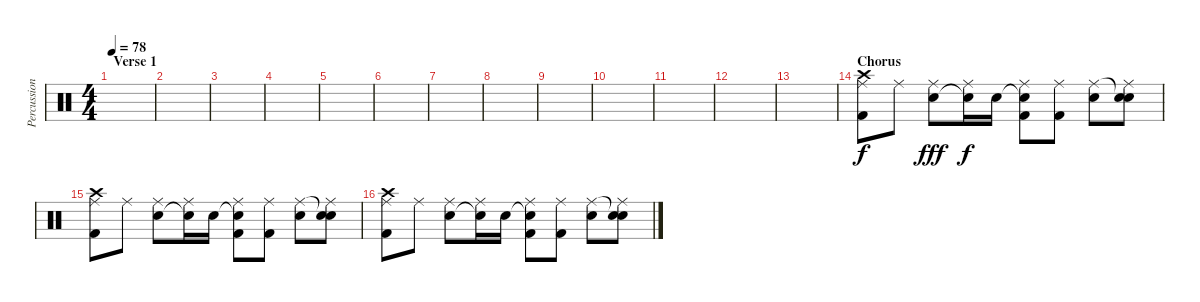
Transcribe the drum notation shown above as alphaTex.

\track ("Percussion" "Percussion") {instrument percussion}
\staff {score}
\articulation defaults
\ts (4 4)
\section ("" "Verse 1")
\tempo 78
\clef neutral
\ks c
|
|
|
|
|
|
|
|
|
|
|
|
|
\section ("" "Chorus")
("Crash high (hit)" "Ride (middle)" "Kick (hit) 2").8 "Ride (middle)".8 ("Ride (middle)" "Electric Snare (hit)").8{dy fff} ("Ride (middle)" "Snare (hit)"{t}).16{dy f} "Snare (hit) 2".16 ("Snare (hit)"{t} "Ride (middle)" "Kick (hit) 2").8 ("Ride (middle)" "Kick (hit) 2").8 ("Ride (middle)" "Electric Snare (hit)").8 ("Snare (hit)"{t} "Ride (middle)" "Electric Snare (hit)").8 |
("Crash high (hit)" "Ride (middle)" "Kick (hit) 2").8 "Ride (middle)".8 ("Ride (middle)" "Electric Snare (hit)").8 ("Ride (middle)" "Snare (hit)"{t}).16 "Snare (hit) 2".16 ("Snare (hit)"{t} "Ride (middle)" "Kick (hit) 2").8 ("Ride (middle)" "Kick (hit) 2").8 ("Ride (middle)" "Electric Snare (hit)").8 ("Snare (hit)"{t} "Ride (middle)" "Electric Snare (hit)").8 |
("Crash high (hit)" "Ride (middle)" "Kick (hit) 2").8 "Ride (middle)".8 ("Ride (middle)" "Electric Snare (hit)").8 ("Ride (middle)" "Snare (hit)"{t}).16 "Snare (hit) 2".16 ("Snare (hit)"{t} "Ride (middle)" "Kick (hit) 2").8 ("Ride (middle)" "Kick (hit) 2").8 ("Ride (middle)" "Electric Snare (hit)").8 ("Snare (hit)"{t} "Ride (middle)" "Electric Snare (hit)").8
